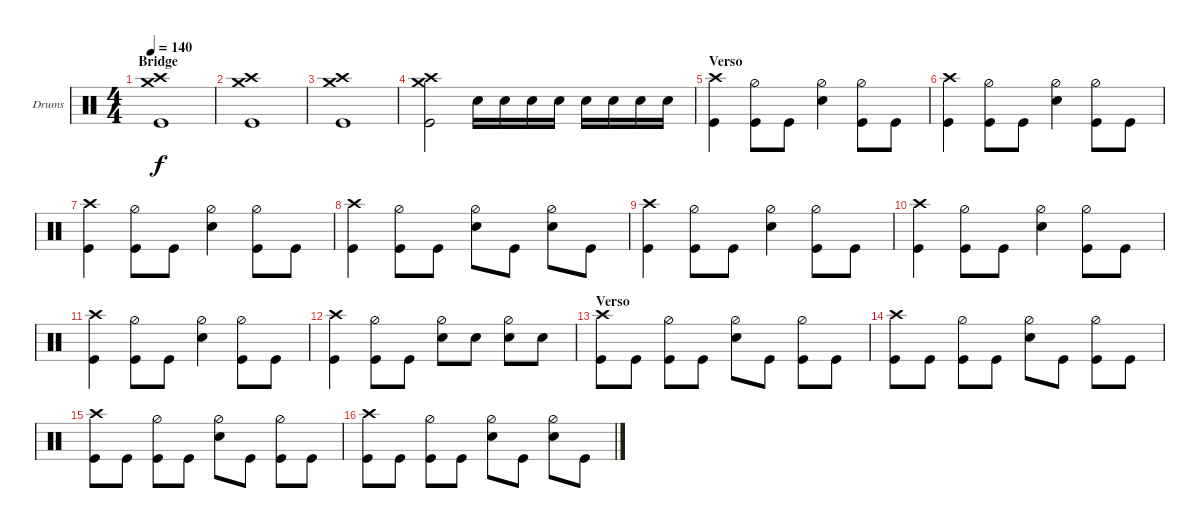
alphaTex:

\defaultSystemsLayout 4
\bracketExtendMode groupsimilarinstruments
\firstSystemTrackNameOrientation horizontal
\otherSystemsTrackNameOrientation horizontal
\track ("Drumkit" "Drums") {instrument percussion}
\staff {score}
\articulation defaults
\ts (4 4)
\section ("" "Bridge")
\tempo 140
\clef neutral
\ks c
("Kick (hit)" "Crash high (hit)" "Crash medium (hit)").1{dy f} |
("Kick (hit)" "Crash high (hit)" "Crash medium (hit)").1 |
("Kick (hit)" "Crash high (hit)" "Crash medium (hit)").1 |
("Kick (hit)" "Crash high (hit)" "Crash medium (hit)").2 "Snare (hit) 2".16 "Snare (hit) 2".16 "Snare (hit) 2".16 "Snare (hit) 2".16 "Snare (hit) 2".16 "Snare (hit) 2".16 "Snare (hit) 2".16 "Snare (hit) 2".16 |
\section ("" "Verso")
("Kick (hit)" "Crash high (hit)").4 ("Kick (hit)" "Hi-Hat (half)").8 "Kick (hit)".8 ("Snare (hit) 2" "Hi-Hat (half)").4 ("Kick (hit)" "Hi-Hat (half)").8 "Kick (hit)".8 |
("Kick (hit)" "Crash high (hit)").4 ("Kick (hit)" "Hi-Hat (half)").8 "Kick (hit)".8 ("Snare (hit) 2" "Hi-Hat (half)").4 ("Kick (hit)" "Hi-Hat (half)").8 "Kick (hit)".8 |
("Kick (hit)" "Crash high (hit)").4 ("Kick (hit)" "Hi-Hat (half)").8 "Kick (hit)".8 ("Snare (hit) 2" "Hi-Hat (half)").4 ("Kick (hit)" "Hi-Hat (half)").8 "Kick (hit)".8 |
("Kick (hit)" "Crash high (hit)").4 ("Kick (hit)" "Hi-Hat (half)").8 "Kick (hit)".8 ("Snare (hit) 2" "Hi-Hat (half)").8 "Kick (hit)".8 ("Snare (hit) 2" "Hi-Hat (half)").8 "Kick (hit)".8 |
("Kick (hit)" "Crash high (hit)").4 ("Kick (hit)" "Hi-Hat (half)").8 "Kick (hit)".8 ("Snare (hit) 2" "Hi-Hat (half)").4 ("Kick (hit)" "Hi-Hat (half)").8 "Kick (hit)".8 |
("Kick (hit)" "Crash high (hit)").4 ("Kick (hit)" "Hi-Hat (half)").8 "Kick (hit)".8 ("Snare (hit) 2" "Hi-Hat (half)").4 ("Kick (hit)" "Hi-Hat (half)").8 "Kick (hit)".8 |
("Kick (hit)" "Crash high (hit)").4 ("Kick (hit)" "Hi-Hat (half)").8 "Kick (hit)".8 ("Snare (hit) 2" "Hi-Hat (half)").4 ("Kick (hit)" "Hi-Hat (half)").8 "Kick (hit)".8 |
("Kick (hit)" "Crash high (hit)").4 ("Kick (hit)" "Hi-Hat (half)").8 "Kick (hit)".8 ("Snare (hit) 2" "Hi-Hat (half)").8 "Snare (hit) 2".8 ("Snare (hit) 2" "Hi-Hat (half)").8 "Snare (hit) 2".8 |
\section ("" "Verso")
("Kick (hit)" "Crash high (hit)").8 "Kick (hit)".8 ("Kick (hit)" "Hi-Hat (half)").8 "Kick (hit)".8 ("Snare (hit) 2" "Hi-Hat (half)").8 "Kick (hit)".8 ("Kick (hit)" "Hi-Hat (half)").8 "Kick (hit)".8 |
("Kick (hit)" "Crash high (hit)").8 "Kick (hit)".8 ("Kick (hit)" "Hi-Hat (half)").8 "Kick (hit)".8 ("Snare (hit) 2" "Hi-Hat (half)").8 "Kick (hit)".8 ("Kick (hit)" "Hi-Hat (half)").8 "Kick (hit)".8 |
("Kick (hit)" "Crash high (hit)").8 "Kick (hit)".8 ("Kick (hit)" "Hi-Hat (half)").8 "Kick (hit)".8 ("Snare (hit) 2" "Hi-Hat (half)").8 "Kick (hit)".8 ("Kick (hit)" "Hi-Hat (half)").8 "Kick (hit)".8 |
("Kick (hit)" "Crash high (hit)").8 "Kick (hit)".8 ("Kick (hit)" "Hi-Hat (half)").8 "Kick (hit)".8 ("Snare (hit) 2" "Hi-Hat (half)").8 "Kick (hit)".8 ("Snare (hit) 2" "Hi-Hat (half)").8 "Kick (hit)".8
